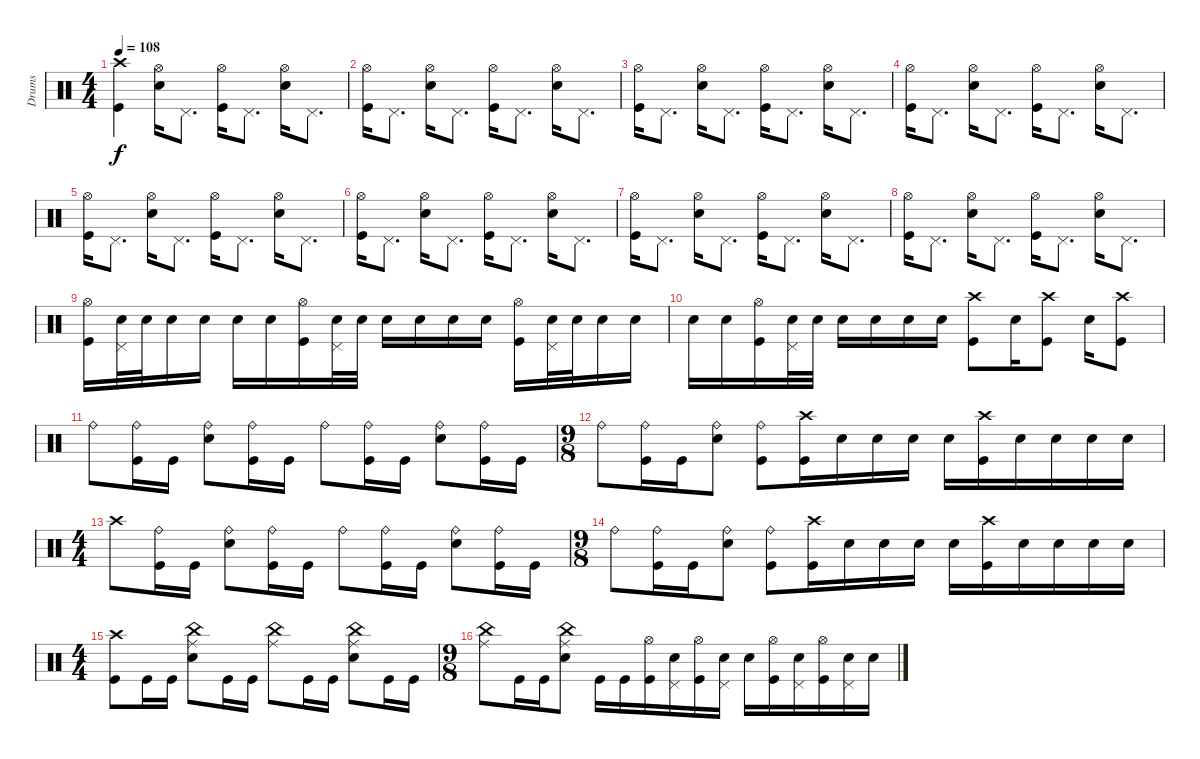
\track ("Drums" "Drums") {instrument percussion}
\staff {score}
\articulation defaults
\ts (4 4)
\tempo 108
\clef neutral
\ks c
("Crash high (hit)" "Kick (hit)").4{dy f} ("Hi-Hat (open)" "Snare (hit) 2").16 "Pedal Hi-Hat (hit)".8{d} ("Hi-Hat (open)" "Kick (hit)").16 "Pedal Hi-Hat (hit)".8{d} ("Hi-Hat (open)" "Snare (hit) 2").16 "Pedal Hi-Hat (hit)".8{d} |
("Hi-Hat (open)" "Kick (hit)").16 "Pedal Hi-Hat (hit)".8{d} ("Hi-Hat (open)" "Snare (hit) 2").16 "Pedal Hi-Hat (hit)".8{d} ("Hi-Hat (open)" "Kick (hit)").16 "Pedal Hi-Hat (hit)".8{d} ("Hi-Hat (open)" "Snare (hit) 2").16 "Pedal Hi-Hat (hit)".8{d} |
("Hi-Hat (open)" "Kick (hit)").16 "Pedal Hi-Hat (hit)".8{d} ("Hi-Hat (open)" "Snare (hit) 2").16 "Pedal Hi-Hat (hit)".8{d} ("Hi-Hat (open)" "Kick (hit)").16 "Pedal Hi-Hat (hit)".8{d} ("Hi-Hat (open)" "Snare (hit) 2").16 "Pedal Hi-Hat (hit)".8{d} |
("Hi-Hat (open)" "Kick (hit)").16 "Pedal Hi-Hat (hit)".8{d} ("Hi-Hat (open)" "Snare (hit) 2").16 "Pedal Hi-Hat (hit)".8{d} ("Hi-Hat (open)" "Kick (hit)").16 "Pedal Hi-Hat (hit)".8{d} ("Hi-Hat (open)" "Snare (hit) 2").16 "Pedal Hi-Hat (hit)".8{d} |
("Hi-Hat (open)" "Kick (hit)").16 "Pedal Hi-Hat (hit)".8{d} ("Hi-Hat (open)" "Snare (hit) 2").16 "Pedal Hi-Hat (hit)".8{d} ("Hi-Hat (open)" "Kick (hit)").16 "Pedal Hi-Hat (hit)".8{d} ("Hi-Hat (open)" "Snare (hit) 2").16 "Pedal Hi-Hat (hit)".8{d} |
("Hi-Hat (open)" "Kick (hit)").16 "Pedal Hi-Hat (hit)".8{d} ("Hi-Hat (open)" "Snare (hit) 2").16 "Pedal Hi-Hat (hit)".8{d} ("Hi-Hat (open)" "Kick (hit)").16 "Pedal Hi-Hat (hit)".8{d} ("Hi-Hat (open)" "Snare (hit) 2").16 "Pedal Hi-Hat (hit)".8{d} |
("Hi-Hat (open)" "Kick (hit)").16 "Pedal Hi-Hat (hit)".8{d} ("Hi-Hat (open)" "Snare (hit) 2").16 "Pedal Hi-Hat (hit)".8{d} ("Hi-Hat (open)" "Kick (hit)").16 "Pedal Hi-Hat (hit)".8{d} ("Hi-Hat (open)" "Snare (hit) 2").16 "Pedal Hi-Hat (hit)".8{d} |
("Hi-Hat (open)" "Kick (hit)").16 "Pedal Hi-Hat (hit)".8{d} ("Hi-Hat (open)" "Snare (hit) 2").16 "Pedal Hi-Hat (hit)".8{d} ("Hi-Hat (open)" "Kick (hit)").16 "Pedal Hi-Hat (hit)".8{d} ("Hi-Hat (open)" "Snare (hit) 2").16 "Pedal Hi-Hat (hit)".8{d} |
("Kick (hit)" "Hi-Hat (open)").16 ("Snare (hit) 2" "Pedal Hi-Hat (hit)").32 "Snare (hit) 2".32 "Snare (hit) 2".16 "Snare (hit) 2".16 "Snare (hit) 2".16 "Snare (hit) 2".16 ("Hi-Hat (open)" "Kick (hit)").16 ("Snare (hit) 2" "Pedal Hi-Hat (hit)").32 "Snare (hit) 2".32 "Snare (hit) 2".16 "Snare (hit) 2".16 "Snare (hit) 2".16 "Snare (hit) 2".16 ("Kick (hit)" "Hi-Hat (open)").16 ("Snare (hit) 2" "Pedal Hi-Hat (hit)").32 "Snare (hit) 2".32 "Snare (hit) 2".16 "Snare (hit) 2".16 |
"Snare (hit) 2".16 "Snare (hit) 2".16 ("Hi-Hat (open)" "Kick (hit)").16 ("Snare (hit) 2" "Pedal Hi-Hat (hit)").32 "Snare (hit) 2".32 "Snare (hit) 2".16 "Snare (hit) 2".16 "Snare (hit) 2".16 "Snare (hit) 2".16 ("Kick (hit)" "Crash high (hit)").8 "Electric Snare (hit)".16 ("Kick (hit)" "Crash high (hit)").8 "Electric Snare (hit)".16 ("Kick (hit)" "Crash high (hit)").8 |
"Ride (bell)".8 ("Ride (bell)" "Kick (hit)").16 "Kick (hit)".16 ("Ride (bell)" "Snare (hit) 2").8 ("Ride (bell)" "Kick (hit)").16 "Kick (hit)".16 "Ride (bell)".8 ("Ride (bell)" "Kick (hit)").16 "Kick (hit)".16 ("Ride (bell)" "Snare (hit) 2").8 ("Ride (bell)" "Kick (hit)").16 "Kick (hit)".16 |
\ts (9 8)
"Ride (bell)".8 ("Ride (bell)" "Kick (hit)").16 "Kick (hit)".16 ("Ride (bell)" "Snare (hit) 2").8 ("Ride (bell)" "Kick (hit)").8 ("Kick (hit)" "Crash high (hit)").16 "Snare (hit) 2".16 "Snare (hit) 2".16 "Snare (hit) 2".16 "Snare (hit) 2".16 ("Kick (hit)" "Crash high (hit)").16 "Snare (hit) 2".16 "Snare (hit) 2".16 "Snare (hit) 2".16 "Snare (hit) 2".16 |
\ts (4 4)
"Crash high (hit)".8 ("Ride (bell)" "Kick (hit)").16 "Kick (hit)".16 ("Ride (bell)" "Snare (hit) 2").8 ("Ride (bell)" "Kick (hit)").16 "Kick (hit)".16 "Ride (bell)".8 ("Ride (bell)" "Kick (hit)").16 "Kick (hit)".16 ("Ride (bell)" "Snare (hit) 2").8 ("Ride (bell)" "Kick (hit)").16 "Kick (hit)".16 |
\ts (9 8)
"Ride (bell)".8 ("Ride (bell)" "Kick (hit)").16 "Kick (hit)".16 ("Ride (bell)" "Snare (hit) 2").8 ("Ride (bell)" "Kick (hit)").8 ("Kick (hit)" "Crash high (hit)").16 "Snare (hit) 2".16 "Snare (hit) 2".16 "Snare (hit) 2".16 "Snare (hit) 2".16 ("Kick (hit)" "Crash high (hit)").16 "Snare (hit) 2".16 "Snare (hit) 2".16 "Snare (hit) 2".16 "Snare (hit) 2".16 |
\ts (4 4)
("Crash high (hit)" "Kick (hit)").8 "Kick (hit)".16 "Kick (hit)".16 ("Ride (middle)" "China (hit)" "Snare (hit) 2").8 "Kick (hit)".16 "Kick (hit)".16 ("Ride (middle)" "China (hit)").8 "Kick (hit)".16 "Kick (hit)".16 ("Ride (middle)" "China (hit)" "Snare (hit) 2").8 "Kick (hit)".16 "Kick (hit)".16 |
\ts (9 8)
("Ride (middle)" "China (hit)").8 "Kick (hit)".16 "Kick (hit)".16 ("Ride (middle)" "China (hit)" "Snare (hit) 2").8 "Kick (hit)".16 "Kick (hit)".16 ("Kick (hit)" "Hi-Hat (open)").16 ("Electric Snare (hit)" "Pedal Hi-Hat (hit)").16 ("Kick (hit)" "Hi-Hat (open)").16 ("Electric Snare (hit)" "Pedal Hi-Hat (hit)").16 "Electric Snare (hit)".16 ("Kick (hit)" "Hi-Hat (open)").16 ("Electric Snare (hit)" "Pedal Hi-Hat (hit)").16 ("Kick (hit)" "Hi-Hat (open)").16 ("Electric Snare (hit)" "Pedal Hi-Hat (hit)").16 "Electric Snare (hit)".16
